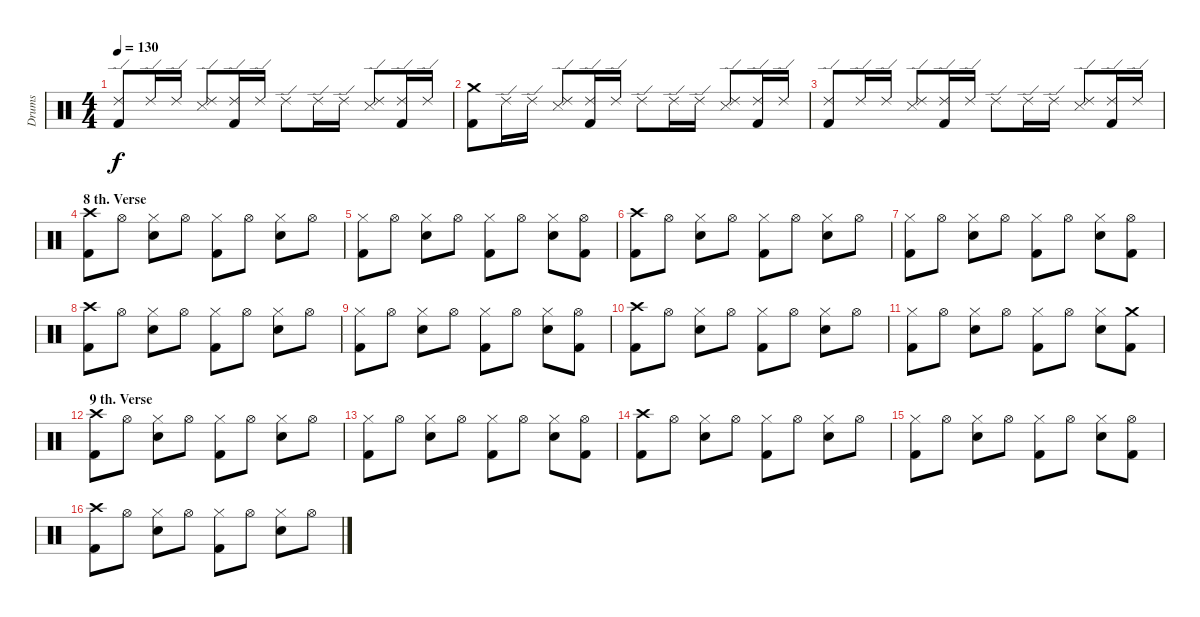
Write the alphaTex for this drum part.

\track ("Drums" "Drums") {instrument percussion}
\staff {score}
\articulation defaults
\ts (4 4)
\tempo 130
\clef neutral
\ks c
("Ride (edge) 2" "Kick (hit) 2").8{dy f} "Ride (edge) 2".16 "Ride (edge) 2".16 ("Ride (edge) 2" "Snare (side stick) 3").8 ("Ride (edge) 2" "Kick (hit) 2").16 "Ride (edge) 2".16 "Ride (edge) 2".8 "Ride (edge) 2".16 "Ride (edge) 2".16 ("Ride (edge) 2" "Snare (side stick) 3").8 ("Ride (edge) 2" "Kick (hit) 2").16 "Ride (edge) 2".16 |
("Crash medium (hit)" "Kick (hit) 2").8 "Ride (edge) 2".16 "Ride (edge) 2".16 ("Ride (edge) 2" "Snare (side stick) 3").8 ("Ride (edge) 2" "Kick (hit) 2").16 "Ride (edge) 2".16 "Ride (edge) 2".8 "Ride (edge) 2".16 "Ride (edge) 2".16 ("Ride (edge) 2" "Snare (side stick) 3").8 ("Ride (edge) 2" "Kick (hit) 2").16 "Ride (edge) 2".16 |
("Ride (edge) 2" "Kick (hit) 2").8 "Ride (edge) 2".16 "Ride (edge) 2".16 ("Ride (edge) 2" "Snare (side stick) 3").8 ("Ride (edge) 2" "Kick (hit) 2").16 "Ride (edge) 2".16 "Ride (edge) 2".8 "Ride (edge) 2".16 "Ride (edge) 2".16 ("Ride (edge) 2" "Snare (side stick) 3").8 ("Ride (edge) 2" "Kick (hit) 2").16 "Ride (edge) 2".16 |
\section ("" "8 th. Verse")
("Crash high (hit)" "Kick (hit) 2").8 "Hi-Hat (open)".8 ("Hi-Hat (closed)" "Snare (hit) 2").8 "Hi-Hat (open)".8 ("Hi-Hat (closed)" "Kick (hit) 2").8 "Hi-Hat (open)".8 ("Hi-Hat (closed)" "Snare (hit) 2").8 "Hi-Hat (open)".8 |
("Hi-Hat (closed)" "Kick (hit) 2").8 "Hi-Hat (open)".8 ("Hi-Hat (closed)" "Snare (hit) 2").8 "Hi-Hat (open)".8 ("Hi-Hat (closed)" "Kick (hit) 2").8 "Hi-Hat (open)".8 ("Hi-Hat (closed)" "Snare (hit) 2").8 ("Hi-Hat (open)" "Kick (hit) 2").8 |
("Crash high (hit)" "Kick (hit) 2").8 "Hi-Hat (open)".8 ("Hi-Hat (closed)" "Snare (hit) 2").8 "Hi-Hat (open)".8 ("Hi-Hat (closed)" "Kick (hit) 2").8 "Hi-Hat (open)".8 ("Hi-Hat (closed)" "Snare (hit) 2").8 "Hi-Hat (open)".8 |
("Hi-Hat (closed)" "Kick (hit) 2").8 "Hi-Hat (open)".8 ("Hi-Hat (closed)" "Snare (hit) 2").8 "Hi-Hat (open)".8 ("Hi-Hat (closed)" "Kick (hit) 2").8 "Hi-Hat (open)".8 ("Hi-Hat (closed)" "Snare (hit) 2").8 ("Hi-Hat (open)" "Kick (hit) 2").8 |
("Crash high (hit)" "Kick (hit) 2").8 "Hi-Hat (open)".8 ("Hi-Hat (closed)" "Snare (hit) 2").8 "Hi-Hat (open)".8 ("Hi-Hat (closed)" "Kick (hit) 2").8 "Hi-Hat (open)".8 ("Hi-Hat (closed)" "Snare (hit) 2").8 "Hi-Hat (open)".8 |
("Hi-Hat (closed)" "Kick (hit) 2").8 "Hi-Hat (open)".8 ("Hi-Hat (closed)" "Snare (hit) 2").8 "Hi-Hat (open)".8 ("Hi-Hat (closed)" "Kick (hit) 2").8 "Hi-Hat (open)".8 ("Hi-Hat (closed)" "Snare (hit) 2").8 ("Hi-Hat (open)" "Kick (hit) 2").8 |
("Crash high (hit)" "Kick (hit) 2").8 "Hi-Hat (open)".8 ("Hi-Hat (closed)" "Snare (hit) 2").8 "Hi-Hat (open)".8 ("Hi-Hat (closed)" "Kick (hit) 2").8 "Hi-Hat (open)".8 ("Hi-Hat (closed)" "Snare (hit) 2").8 "Hi-Hat (open)".8 |
("Hi-Hat (closed)" "Kick (hit) 2").8 "Hi-Hat (open)".8 ("Hi-Hat (closed)" "Snare (hit) 2").8 "Hi-Hat (open)".8 ("Hi-Hat (closed)" "Kick (hit) 2").8 "Hi-Hat (open)".8 ("Hi-Hat (closed)" "Snare (hit) 2").8 ("Crash medium (hit)" "Kick (hit) 2").8 |
\section ("" "9 th. Verse")
("Crash high (hit)" "Kick (hit) 2").8 "Hi-Hat (open)".8 ("Hi-Hat (closed)" "Snare (hit) 2").8 "Hi-Hat (open)".8 ("Hi-Hat (closed)" "Kick (hit) 2").8 "Hi-Hat (open)".8 ("Hi-Hat (closed)" "Snare (hit) 2").8 "Hi-Hat (open)".8 |
("Hi-Hat (closed)" "Kick (hit) 2").8 "Hi-Hat (open)".8 ("Hi-Hat (closed)" "Snare (hit) 2").8 "Hi-Hat (open)".8 ("Hi-Hat (closed)" "Kick (hit) 2").8 "Hi-Hat (open)".8 ("Hi-Hat (closed)" "Snare (hit) 2").8 ("Hi-Hat (open)" "Kick (hit) 2").8 |
("Crash high (hit)" "Kick (hit) 2").8 "Hi-Hat (open)".8 ("Hi-Hat (closed)" "Snare (hit) 2").8 "Hi-Hat (open)".8 ("Hi-Hat (closed)" "Kick (hit) 2").8 "Hi-Hat (open)".8 ("Hi-Hat (closed)" "Snare (hit) 2").8 "Hi-Hat (open)".8 |
("Hi-Hat (closed)" "Kick (hit) 2").8 "Hi-Hat (open)".8 ("Hi-Hat (closed)" "Snare (hit) 2").8 "Hi-Hat (open)".8 ("Hi-Hat (closed)" "Kick (hit) 2").8 "Hi-Hat (open)".8 ("Hi-Hat (closed)" "Snare (hit) 2").8 ("Hi-Hat (open)" "Kick (hit) 2").8 |
("Crash high (hit)" "Kick (hit) 2").8 "Hi-Hat (open)".8 ("Hi-Hat (closed)" "Snare (hit) 2").8 "Hi-Hat (open)".8 ("Hi-Hat (closed)" "Kick (hit) 2").8 "Hi-Hat (open)".8 ("Hi-Hat (closed)" "Snare (hit) 2").8 "Hi-Hat (open)".8
